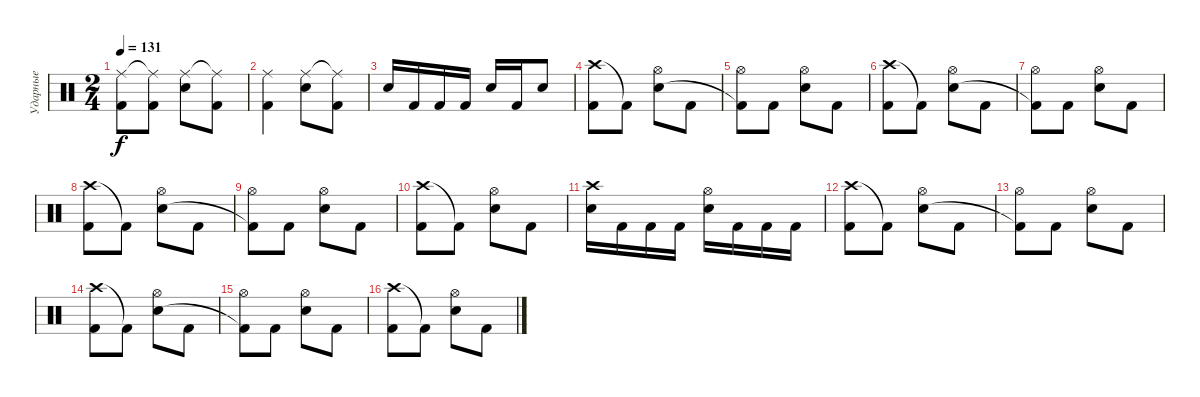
\track ("Ударные" "Ударные") {instrument percussion}
\staff {score}
\articulation defaults
\ts (2 4)
\tempo 131
\clef neutral
\ks c
("Ride (middle)" "Kick (hit) 2").8{dy f} ("Ride (middle)"{t} "Kick (hit) 2").8 ("Ride (middle)" "Electric Snare (hit)").8 ("Ride (middle)"{t} "Kick (hit) 2").8 |
("Ride (middle)" "Kick (hit) 2").4 ("Ride (middle)" "Electric Snare (hit)").8 ("Ride (middle)"{t} "Kick (hit) 2").8 |
"Electric Snare (hit)".16 "Kick (hit) 2".16 "Kick (hit) 2".16 "Kick (hit) 2".16 "Electric Snare (hit)".16 "Kick (hit) 2".16 "Electric Snare (hit)".8 |
("Crash high (hit)" "Kick (hit) 2").8 "Kick (hit) 2"{t}.8 ("Hi-Hat (open)" "Electric Snare (hit)").8 "Kick (hit) 2".8 |
("Hi-Hat (open)" "Kick (hit) 2"{t}).8 "Kick (hit) 2".8 ("Hi-Hat (open)" "Electric Snare (hit)").8 "Kick (hit) 2".8 |
("Crash high (hit)" "Kick (hit) 2").8 "Kick (hit) 2"{t}.8 ("Hi-Hat (open)" "Electric Snare (hit)").8 "Kick (hit) 2".8 |
("Hi-Hat (open)" "Kick (hit) 2"{t}).8 "Kick (hit) 2".8 ("Hi-Hat (open)" "Electric Snare (hit)").8 "Kick (hit) 2".8 |
("Crash high (hit)" "Kick (hit) 2").8 "Kick (hit) 2"{t}.8 ("Hi-Hat (open)" "Electric Snare (hit)").8 "Kick (hit) 2".8 |
("Hi-Hat (open)" "Kick (hit) 2"{t}).8 "Kick (hit) 2".8 ("Hi-Hat (open)" "Electric Snare (hit)").8 "Kick (hit) 2".8 |
("Crash high (hit)" "Kick (hit) 2").8 "Kick (hit) 2"{t}.8 ("Hi-Hat (open)" "Electric Snare (hit)").8 "Kick (hit) 2".8 |
("Crash high (hit)" "Electric Snare (hit)").16 "Kick (hit) 2".16 "Kick (hit) 2".16 "Kick (hit) 2".16 ("Hi-Hat (open)" "Electric Snare (hit)").16 "Kick (hit) 2".16 "Kick (hit) 2".16 "Kick (hit) 2".16 |
("Crash high (hit)" "Kick (hit) 2").8 "Kick (hit) 2"{t}.8 ("Hi-Hat (open)" "Electric Snare (hit)").8 "Kick (hit) 2".8 |
("Hi-Hat (open)" "Kick (hit) 2"{t}).8 "Kick (hit) 2".8 ("Hi-Hat (open)" "Electric Snare (hit)").8 "Kick (hit) 2".8 |
("Crash high (hit)" "Kick (hit) 2").8 "Kick (hit) 2"{t}.8 ("Hi-Hat (open)" "Electric Snare (hit)").8 "Kick (hit) 2".8 |
("Hi-Hat (open)" "Kick (hit) 2"{t}).8 "Kick (hit) 2".8 ("Hi-Hat (open)" "Electric Snare (hit)").8 "Kick (hit) 2".8 |
("Crash high (hit)" "Kick (hit) 2").8 "Kick (hit) 2"{t}.8 ("Hi-Hat (open)" "Electric Snare (hit)").8 "Kick (hit) 2".8
